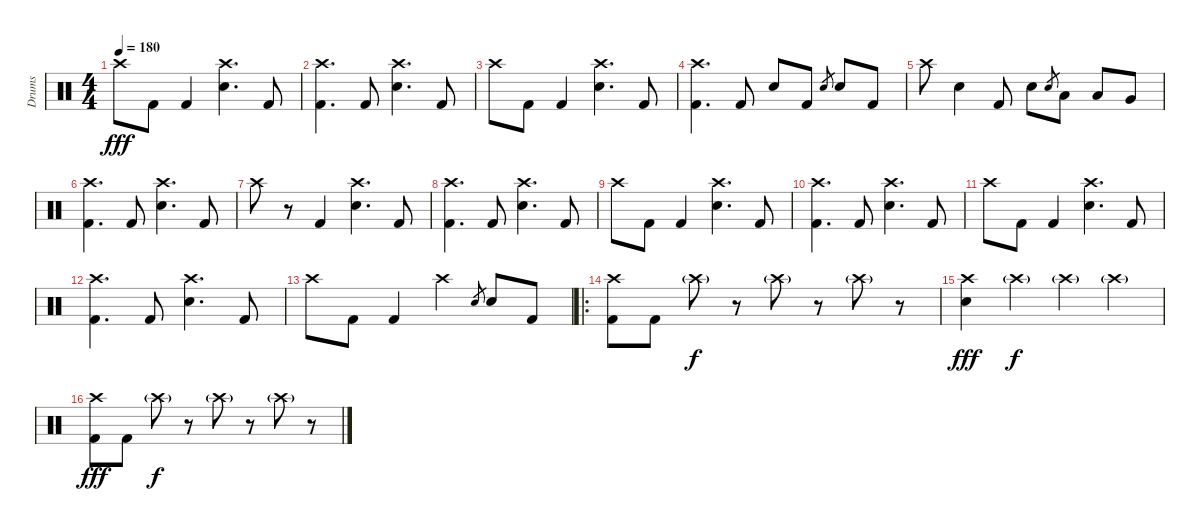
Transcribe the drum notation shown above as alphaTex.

\track ("Drums" "Drums") {instrument percussion}
\staff {score}
\articulation defaults
\ts (4 4)
\tempo 180
\clef neutral
\ks c "Crash high (hit)".8{dy fff} "Kick (hit) 2".8 "Kick (hit) 2".4
("Crash high (hit)" "Electric Snare (hit)").4{d} "Kick (hit) 2".8 |
("Crash high (hit)" "Kick (hit) 2").4{d} "Kick (hit) 2".8 ("Crash high (hit)" "Electric Snare (hit)").4{d} "Kick (hit) 2".8 |
"Crash high (hit)".8 "Kick (hit) 2".8 "Kick (hit) 2".4 ("Crash high (hit)" "Electric Snare (hit)").4{d} "Kick (hit) 2".8 |
("Crash high (hit)" "Kick (hit) 2").4{d} "Kick (hit) 2".8 "Electric Snare (hit)".8 "Kick (hit) 2".8 "Electric Snare (hit)".8{gr} "Electric Snare (hit)".8 "Kick (hit) 2".8 |
"Crash high (hit)".8 "Electric Snare (hit)".4 "Kick (hit) 2".8 "Electric Snare (hit)".8 "Electric Snare (hit)".8{gr} "Low Tom (hit)".8 "Low Tom (hit)".8 "Very Low Tom (hit)".8 |
("Crash high (hit)" "Kick (hit) 2").4{d} "Kick (hit) 2".8 ("Crash high (hit)" "Electric Snare (hit)").4{d} "Kick (hit) 2".8 |
"Crash high (hit)".8 r.8 "Kick (hit) 2".4 ("Crash high (hit)" "Electric Snare (hit)").4{d} "Kick (hit) 2".8 |
("Crash high (hit)" "Kick (hit) 2").4{d} "Kick (hit) 2".8 ("Crash high (hit)" "Electric Snare (hit)").4{d} "Kick (hit) 2".8 |
"Crash high (hit)".8 "Kick (hit) 2".8 "Kick (hit) 2".4 ("Crash high (hit)" "Electric Snare (hit)").4{d} "Kick (hit) 2".8 |
("Crash high (hit)" "Kick (hit) 2").4{d} "Kick (hit) 2".8 ("Crash high (hit)" "Electric Snare (hit)").4{d} "Kick (hit) 2".8 |
"Crash high (hit)".8 "Kick (hit) 2".8 "Kick (hit) 2".4 ("Crash high (hit)" "Electric Snare (hit)").4{d} "Kick (hit) 2".8 |
("Crash high (hit)" "Kick (hit) 2").4{d} "Kick (hit) 2".8 ("Crash high (hit)" "Electric Snare (hit)").4{d} "Kick (hit) 2".8 |
"Crash high (hit)".8 "Kick (hit) 2".8 "Kick (hit) 2".4 "Crash high (hit)".4 "Electric Snare (hit)".8{gr} "Electric Snare (hit)".8 "Kick (hit) 2".8 |
\ro
("Crash high (hit)" "Kick (hit) 2").8 "Kick (hit) 2".8 "Crash high (hit)"{g}.8{dy f} r.8 "Crash high (hit)"{g}.8 r.8 "Crash high (hit)"{g}.8 r.8 |
("Crash high (hit)" "Electric Snare (hit)").4{dy fff} "Crash high (hit)"{g}.4{dy f} "Crash high (hit)"{g}.4 "Crash high (hit)"{g}.4 |
("Crash high (hit)" "Kick (hit) 2").8{dy fff} "Kick (hit) 2".8 "Crash high (hit)"{g}.8{dy f} r.8 "Crash high (hit)"{g}.8 r.8 "Crash high (hit)"{g}.8 r.8
